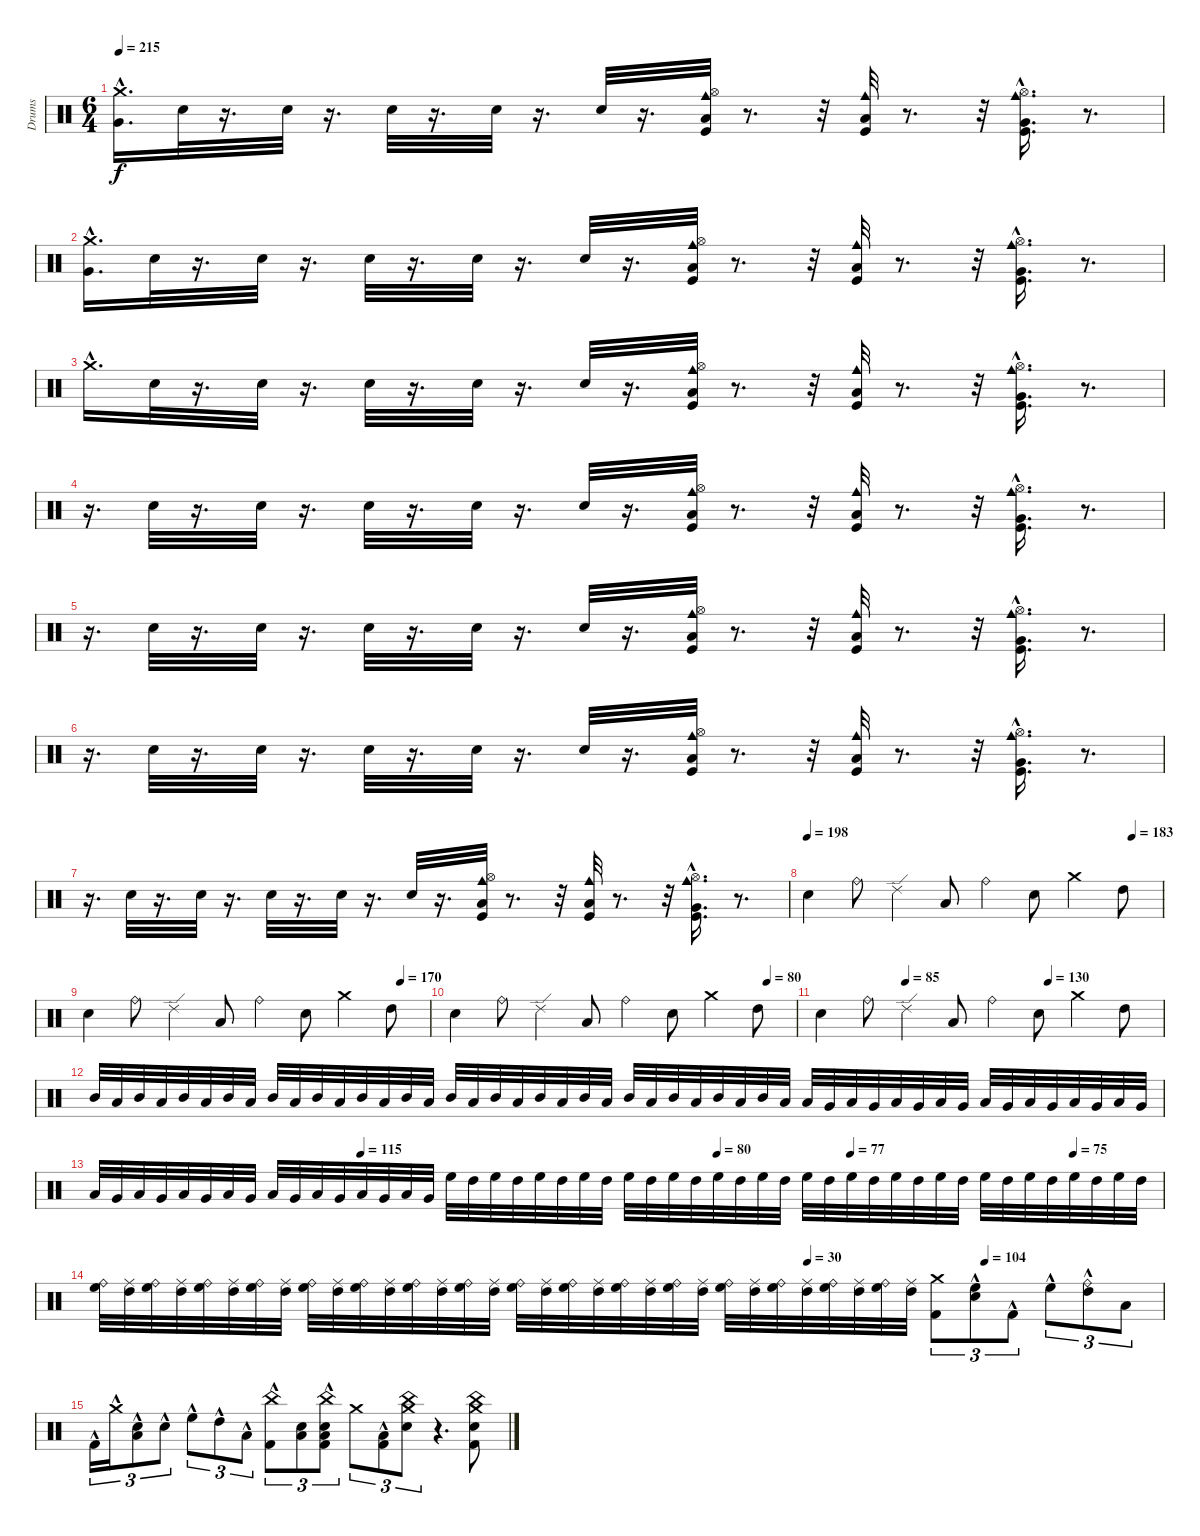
\track ("Drums" "Drums") {instrument percussion}
\staff {score}
\articulation defaults
\ts (6 4)
\tempo 215
\clef neutral
\ks c
("Very Low Tom (hit)"{hac} "Crash medium (hit)"{hac}).16{d dy f} "Snare (hit) 2".32 r.16{d} "Snare (hit) 2".32 r.16{d} "Snare (hit) 2".32 r.16{d} "Snare (hit) 2".32 r.16{d} "Snare (hit) 2".32 r.16{d} ("Kick (hit)" "Hi-Hat (open)" "Cowbell medium (hit)" "Low Floor Tom (hit)").32 r.8{d} r.32 ("Cowbell medium (hit)" "Kick (hit)" "Low Floor Tom (hit)").32 r.8{d} r.32 ("Hi-Hat (open)"{hac} "Kick (hit)" "Cowbell medium (hit)" "Very Low Tom (hit)").16{d} r.8{d} |
("Very Low Tom (hit)"{hac} "Crash medium (hit)"{hac}).16{d} "Snare (hit) 2".32 r.16{d} "Snare (hit) 2".32 r.16{d} "Snare (hit) 2".32 r.16{d} "Snare (hit) 2".32 r.16{d} "Snare (hit) 2".32 r.16{d} ("Kick (hit)" "Hi-Hat (open)" "Cowbell medium (hit)" "Low Floor Tom (hit)").32 r.8{d} r.32 ("Cowbell medium (hit)" "Kick (hit)" "Low Floor Tom (hit)").32 r.8{d} r.32 ("Hi-Hat (open)"{hac} "Kick (hit)" "Cowbell medium (hit)" "Very Low Tom (hit)").16{d} r.8{d} |
"Crash medium (hit)"{hac}.16{d} "Snare (hit) 2".32 r.16{d} "Snare (hit) 2".32 r.16{d} "Snare (hit) 2".32 r.16{d} "Snare (hit) 2".32 r.16{d} "Snare (hit) 2".32 r.16{d} ("Kick (hit)" "Hi-Hat (open)" "Cowbell medium (hit)" "Low Floor Tom (hit)").32 r.8{d} r.32 ("Cowbell medium (hit)" "Kick (hit)" "Low Floor Tom (hit)").32 r.8{d} r.32 ("Hi-Hat (open)"{hac} "Kick (hit)" "Cowbell medium (hit)" "Very Low Tom (hit)").16{d} r.8{d} |
r.16{d} "Snare (hit) 2".32 r.16{d} "Snare (hit) 2".32 r.16{d} "Snare (hit) 2".32 r.16{d} "Snare (hit) 2".32 r.16{d} "Snare (hit) 2".32 r.16{d} ("Kick (hit)" "Hi-Hat (open)" "Cowbell medium (hit)" "Low Floor Tom (hit)").32 r.8{d} r.32 ("Cowbell medium (hit)" "Kick (hit)" "Low Floor Tom (hit)").32 r.8{d} r.32 ("Hi-Hat (open)"{hac} "Kick (hit)" "Cowbell medium (hit)" "Very Low Tom (hit)").16{d} r.8{d} |
r.16{d} "Snare (hit) 2".32 r.16{d} "Snare (hit) 2".32 r.16{d} "Snare (hit) 2".32 r.16{d} "Snare (hit) 2".32 r.16{d} "Snare (hit) 2".32 r.16{d} ("Kick (hit)" "Hi-Hat (open)" "Cowbell medium (hit)" "Low Floor Tom (hit)").32 r.8{d} r.32 ("Cowbell medium (hit)" "Kick (hit)" "Low Floor Tom (hit)").32 r.8{d} r.32 ("Hi-Hat (open)"{hac} "Kick (hit)" "Cowbell medium (hit)" "Very Low Tom (hit)").16{d} r.8{d} |
r.16{d} "Snare (hit) 2".32 r.16{d} "Snare (hit) 2".32 r.16{d} "Snare (hit) 2".32 r.16{d} "Snare (hit) 2".32 r.16{d} "Snare (hit) 2".32 r.16{d} ("Kick (hit)" "Hi-Hat (open)" "Cowbell medium (hit)" "Low Floor Tom (hit)").32 r.8{d} r.32 ("Cowbell medium (hit)" "Kick (hit)" "Low Floor Tom (hit)").32 r.8{d} r.32 ("Hi-Hat (open)"{hac} "Kick (hit)" "Cowbell medium (hit)" "Very Low Tom (hit)").16{d} r.8{d} |
r.16{d} "Snare (hit) 2".32 r.16{d} "Snare (hit) 2".32 r.16{d} "Snare (hit) 2".32 r.16{d} "Snare (hit) 2".32 r.16{d} "Snare (hit) 2".32 r.16{d} ("Kick (hit)" "Hi-Hat (open)" "Cowbell medium (hit)" "Low Floor Tom (hit)").32 r.8{d} r.32 ("Cowbell medium (hit)" "Kick (hit)" "Low Floor Tom (hit)").32 r.8{d} r.32 ("Hi-Hat (open)"{hac} "Kick (hit)" "Cowbell medium (hit)" "Very Low Tom (hit)").16{d} r.8{d} |
\tempo 198
\tempo (183 0.9166666666666666)
"Electric Snare (hit)".4 "Ride (bell)".8 "Ride (edge) 2".4 "Low Tom (hit)".8 "Ride (bell)".4 "Electric Snare (hit)".8 "Crash medium (hit)".4 "High Tom (hit)".8 |
\tempo (170 0.9166666666666666)
"Electric Snare (hit)".4 "Ride (bell)".8 "Ride (edge) 2".4 "Low Tom (hit)".8 "Ride (bell)".4 "Electric Snare (hit)".8 "Crash medium (hit)".4 "High Tom (hit)".8 |
\tempo (80 0.9166666666666666)
"Electric Snare (hit)".4 "Ride (bell)".8 "Ride (edge) 2".4 "Low Tom (hit)".8 "Ride (bell)".4 "Electric Snare (hit)".8 "Crash medium (hit)".4 "High Tom (hit)".8 |
\tempo (85 0.25)
\tempo (130 0.6666666666666666)
"Electric Snare (hit)".4 "Ride (bell)".8 "Ride (edge) 2".4 "Low Tom (hit)".8 "Ride (bell)".4 "Electric Snare (hit)".8 "Crash medium (hit)".4 "High Tom (hit)".8 |
"Mid Tom (hit)".32 "Low Tom (hit)".32 "Mid Tom (hit)".32 "Low Tom (hit)".32 "Mid Tom (hit)".32 "Low Tom (hit)".32 "Mid Tom (hit)".32 "Low Tom (hit)".32 "Mid Tom (hit)".32 "Low Tom (hit)".32 "Mid Tom (hit)".32 "Low Tom (hit)".32 "Mid Tom (hit)".32 "Low Tom (hit)".32 "Mid Tom (hit)".32 "Low Tom (hit)".32 "Mid Tom (hit)".32 "Low Tom (hit)".32 "Mid Tom (hit)".32 "Low Tom (hit)".32 "Mid Tom (hit)".32 "Low Tom (hit)".32 "Mid Tom (hit)".32 "Low Tom (hit)".32 "Mid Tom (hit)".32 "Low Tom (hit)".32 "Mid Tom (hit)".32 "Low Tom (hit)".32 "Mid Tom (hit)".32 "Low Tom (hit)".32 "Mid Tom (hit)".32 "Low Tom (hit)".32 "Low Tom (hit)".32 "Very Low Tom (hit)".32 "Low Tom (hit)".32 "Very Low Tom (hit)".32 "Low Tom (hit)".32 "Very Low Tom (hit)".32 "Low Tom (hit)".32 "Very Low Tom (hit)".32 "Low Tom (hit)".32 "Very Low Tom (hit)".32 "Low Tom (hit)".32 "Very Low Tom (hit)".32 "Low Tom (hit)".32 "Very Low Tom (hit)".32 "Low Tom (hit)".32 "Very Low Tom (hit)".32 |
\tempo (115 0.25)
\tempo (80 0.5833333333333334)
\tempo (77 0.7083333333333334)
\tempo (75 0.9166666666666666)
"Low Tom (hit)".32 "Very Low Tom (hit)".32 "Low Tom (hit)".32 "Very Low Tom (hit)".32 "Low Tom (hit)".32 "Very Low Tom (hit)".32 "Low Tom (hit)".32 "Very Low Tom (hit)".32 "Low Tom (hit)".32 "Very Low Tom (hit)".32 "Low Tom (hit)".32 "Very Low Tom (hit)".32 "Low Tom (hit)".32 "Very Low Tom (hit)".32 "Low Tom (hit)".32 "Very Low Tom (hit)".32 "High Floor Tom (hit)".32 "High Tom (hit)".32 "High Floor Tom (hit)".32 "High Tom (hit)".32 "High Floor Tom (hit)".32 "High Tom (hit)".32 "High Floor Tom (hit)".32 "High Tom (hit)".32 "High Floor Tom (hit)".32 "High Tom (hit)".32 "High Floor Tom (hit)".32 "High Tom (hit)".32 "High Floor Tom (hit)".32 "High Tom (hit)".32 "High Floor Tom (hit)".32 "High Tom (hit)".32 "High Floor Tom (hit)".32 "High Tom (hit)".32 "High Floor Tom (hit)".32 "High Tom (hit)".32 "High Floor Tom (hit)".32 "High Tom (hit)".32 "High Floor Tom (hit)".32 "High Tom (hit)".32 "High Floor Tom (hit)".32 "High Tom (hit)".32 "High Floor Tom (hit)".32 "High Tom (hit)".32 "High Floor Tom (hit)".32 "High Tom (hit)".32 "High Floor Tom (hit)".32 "High Tom (hit)".32 |
\tempo (30 0.6666666666666666)
\tempo (104 0.8333333333333334)
("Ride (bell)" "High Floor Tom (hit)").32 ("Ride (middle)" "High Tom (hit)").32 ("Ride (bell)" "High Floor Tom (hit)").32 ("Ride (middle)" "High Tom (hit)").32 ("Ride (bell)" "High Floor Tom (hit)").32 ("Ride (middle)" "High Tom (hit)").32 ("Ride (bell)" "High Floor Tom (hit)").32 ("Ride (middle)" "High Tom (hit)").32 ("Ride (bell)" "High Floor Tom (hit)").32 ("Ride (middle)" "High Tom (hit)").32 ("Ride (bell)" "High Floor Tom (hit)").32 ("Ride (middle)" "High Tom (hit)").32 ("Ride (bell)" "High Floor Tom (hit)").32 ("Ride (middle)" "High Tom (hit)").32 ("Ride (bell)" "High Floor Tom (hit)").32 ("Ride (middle)" "High Tom (hit)").32 ("Ride (bell)" "High Floor Tom (hit)").32 ("Ride (middle)" "High Tom (hit)").32 ("Ride (bell)" "High Floor Tom (hit)").32 ("Ride (middle)" "High Tom (hit)").32 ("Ride (bell)" "High Floor Tom (hit)").32 ("Ride (middle)" "High Tom (hit)").32 ("Ride (bell)" "High Floor Tom (hit)").32 ("Ride (middle)" "High Tom (hit)").32 ("Ride (bell)" "High Floor Tom (hit)").32 ("Ride (middle)" "High Tom (hit)").32 ("Ride (bell)" "High Floor Tom (hit)").32 ("Ride (middle)" "High Tom (hit)").32 ("Ride (bell)" "High Floor Tom (hit)").32 ("Ride (middle)" "High Tom (hit)").32 ("Ride (bell)" "High Floor Tom (hit)").32 ("Ride (middle)" "High Tom (hit)").32 ("Kick (hit) 2" "Crash medium (hit)").8{tu (3 2)} ("Snare (hit) 2"{hac} "High Floor Tom (hit)"{hac}).8{tu (3 2)} "Kick (hit) 2"{hac}.8{tu (3 2)} "High Floor Tom (hit)"{hac}.8{tu (3 2)} ("Ride (bell)"{hac} "High Tom (hit)"{hac}).8{tu (3 2)} "Low Tom (hit)".8{tu (3 2)} |
"Kick (hit) 2"{hac}.16{tu (3 2)} "Crash medium (hit)"{hac}.16{tu (3 2)} ("Snare (hit) 2"{hac} "Low Tom (hit)"{hac}).8{tu (3 2)} "Electric Snare (hit)"{hac}.8{tu (3 2)} "High Floor Tom (hit)"{hac}.8{tu (3 2)} "High Tom (hit)"{hac}.8{tu (3 2)} "Low Tom (hit)"{hac}.8{tu (3 2)} ("China (hit)"{hac} "Kick (hit) 2"{hac}).8{tu (3 2)} ("Low Tom (hit)" "Snare (hit) 2").8{tu (3 2)} ("China (hit)"{hac} "Low Tom (hit)"{hac} "Snare (hit) 2"{hac} "Kick (hit) 2"{hac}).8{tu (3 2)} "Crash medium (hit)".8{tu (3 2)} ("Low Tom (hit)"{hac} "Kick (hit) 2"{hac}).8{tu (3 2)} ("China (hit)" "Snare (hit) 2" "Crash medium (hit)").8{tu (3 2)} r.4{d} ("China (hit)" "Crash medium (hit)" "Snare (hit) 2" "Kick (hit) 2").8
